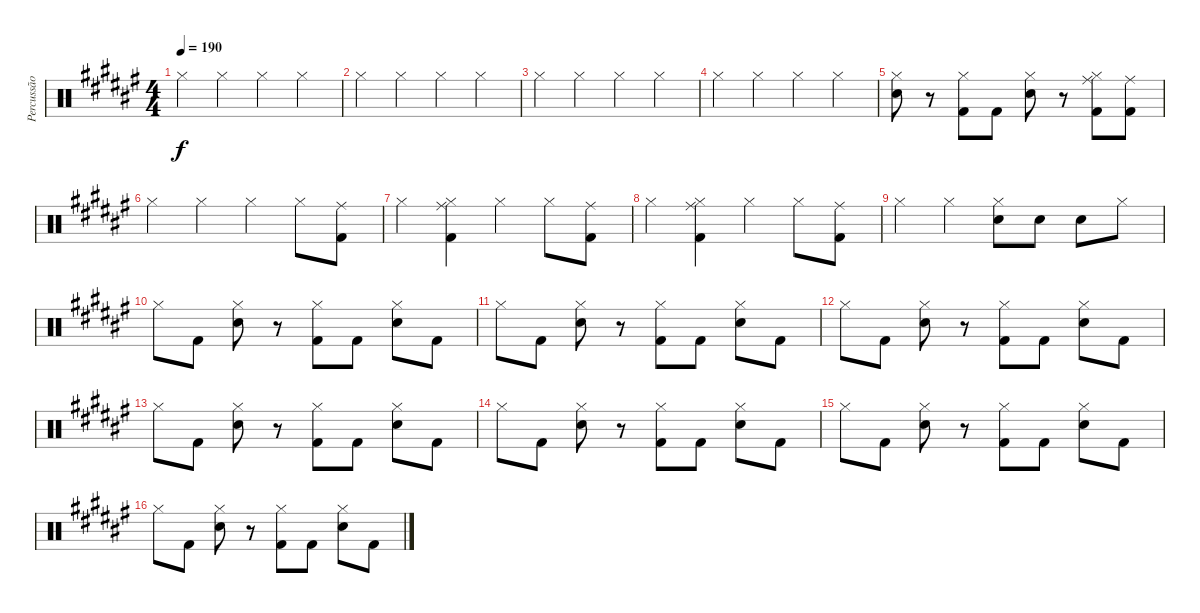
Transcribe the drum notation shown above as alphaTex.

\track ("Percussão" "Percussão") {instrument percussion}
\staff {score}
\articulation defaults
\ts (4 4)
\tempo 190
\clef neutral
\ks d#minor "Hi-Hat (closed)".4{dy f} "Hi-Hat (closed)".4 "Hi-Hat (closed)".4 "Hi-Hat (closed)".4
|
"Hi-Hat (closed)".4 "Hi-Hat (closed)".4 "Hi-Hat (closed)".4 "Hi-Hat (closed)".4 |
"Hi-Hat (closed)".4 "Hi-Hat (closed)".4 "Hi-Hat (closed)".4 "Hi-Hat (closed)".4 |
"Hi-Hat (closed)".4 "Hi-Hat (closed)".4 "Hi-Hat (closed)".4 "Hi-Hat (closed)".4 |
("Hi-Hat (closed)" "Snare (hit) 2").8 r.8 ("Hi-Hat (closed)" "Kick (hit) 2").8 "Kick (hit) 2".8 ("Hi-Hat (closed)" "Snare (hit) 2").8 r.8 ("Hi-Hat (closed)" "Kick (hit) 2" "Ride (middle)").8 ("Kick (hit) 2" "Ride (middle)").8 |
"Hi-Hat (closed)".4 "Hi-Hat (closed)".4 "Hi-Hat (closed)".4 "Hi-Hat (closed)".8 ("Ride (middle)" "Kick (hit) 2").8 |
"Hi-Hat (closed)".4 ("Hi-Hat (closed)" "Ride (middle)" "Kick (hit) 2").4 "Hi-Hat (closed)".4 "Hi-Hat (closed)".8 ("Ride (middle)" "Kick (hit) 2").8 |
"Hi-Hat (closed)".4 ("Hi-Hat (closed)" "Ride (middle)" "Kick (hit) 2").4 "Hi-Hat (closed)".4 "Hi-Hat (closed)".8 ("Ride (middle)" "Kick (hit) 2").8 |
"Hi-Hat (closed)".4 "Hi-Hat (closed)".4 ("Hi-Hat (closed)" "Snare (hit) 2").8 "Snare (hit) 2".8 "Snare (hit) 2".8 "Hi-Hat (closed)".8 |
"Hi-Hat (closed)".8 "Kick (hit) 2".8 ("Hi-Hat (closed)" "Snare (hit) 2").8 r.8 ("Hi-Hat (closed)" "Kick (hit) 2").8 "Kick (hit) 2".8 ("Hi-Hat (closed)" "Snare (hit) 2").8 "Kick (hit) 2".8 |
"Hi-Hat (closed)".8 "Kick (hit) 2".8 ("Hi-Hat (closed)" "Snare (hit) 2").8 r.8 ("Hi-Hat (closed)" "Kick (hit) 2").8 "Kick (hit) 2".8 ("Hi-Hat (closed)" "Snare (hit) 2").8 "Kick (hit) 2".8 |
"Hi-Hat (closed)".8 "Kick (hit) 2".8 ("Hi-Hat (closed)" "Snare (hit) 2").8 r.8 ("Hi-Hat (closed)" "Kick (hit) 2").8 "Kick (hit) 2".8 ("Hi-Hat (closed)" "Snare (hit) 2").8 "Kick (hit) 2".8 |
"Hi-Hat (closed)".8 "Kick (hit) 2".8 ("Hi-Hat (closed)" "Snare (hit) 2").8 r.8 ("Hi-Hat (closed)" "Kick (hit) 2").8 "Kick (hit) 2".8 ("Hi-Hat (closed)" "Snare (hit) 2").8 "Kick (hit) 2".8 |
"Hi-Hat (closed)".8 "Kick (hit) 2".8 ("Hi-Hat (closed)" "Snare (hit) 2").8 r.8 ("Hi-Hat (closed)" "Kick (hit) 2").8 "Kick (hit) 2".8 ("Hi-Hat (closed)" "Snare (hit) 2").8 "Kick (hit) 2".8 |
"Hi-Hat (closed)".8 "Kick (hit) 2".8 ("Hi-Hat (closed)" "Snare (hit) 2").8 r.8 ("Hi-Hat (closed)" "Kick (hit) 2").8 "Kick (hit) 2".8 ("Hi-Hat (closed)" "Snare (hit) 2").8 "Kick (hit) 2".8 |
"Hi-Hat (closed)".8 "Kick (hit) 2".8 ("Hi-Hat (closed)" "Snare (hit) 2").8 r.8 ("Hi-Hat (closed)" "Kick (hit) 2").8 "Kick (hit) 2".8 ("Hi-Hat (closed)" "Snare (hit) 2").8 "Kick (hit) 2".8
